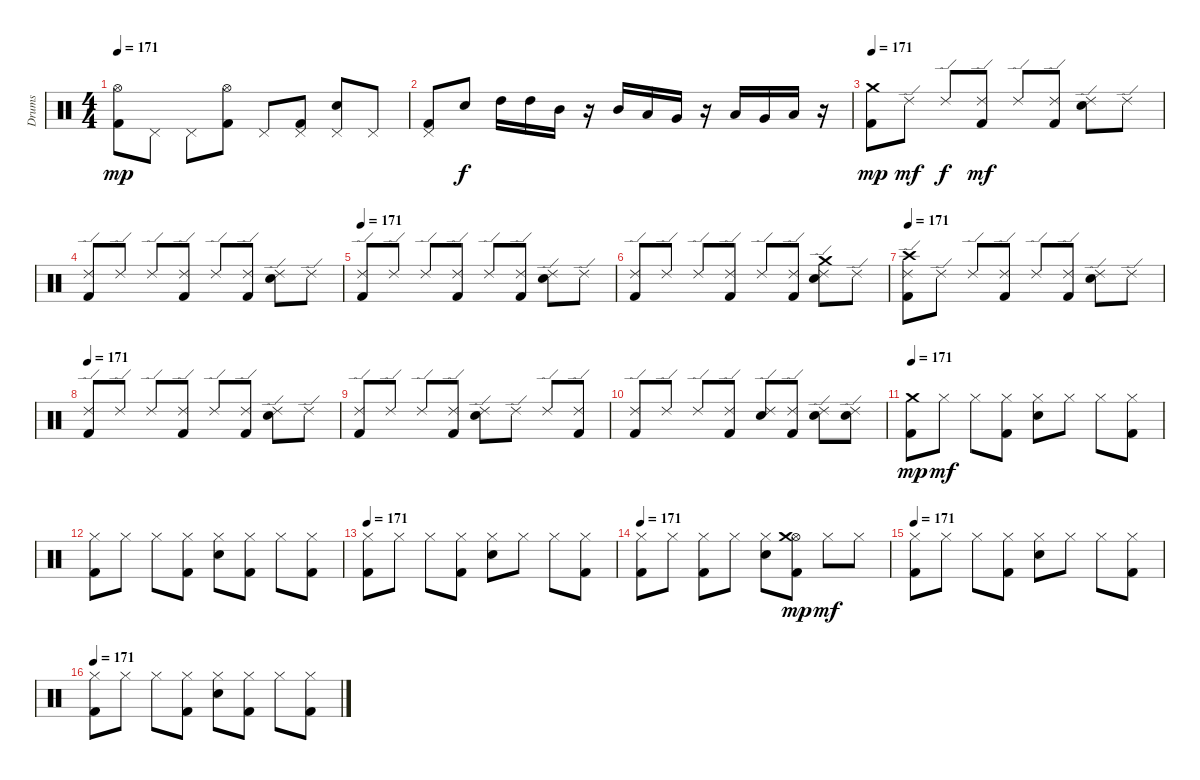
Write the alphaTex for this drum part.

\track ("Drums" "Drums") {instrument percussion}
\staff {score}
\articulation defaults
\ts (4 4)
\tempo 171
\clef neutral
\ks c
("Kick (hit) 2" "Hi-Hat (open)").8{dy mp} "Pedal Hi-Hat (hit)".8 "Pedal Hi-Hat (hit)".8 ("Kick (hit) 2" "Hi-Hat (open)").8 "Pedal Hi-Hat (hit)".8 ("Kick (hit) 2" "Pedal Hi-Hat (hit)").8 ("Electric Snare (hit)" "Pedal Hi-Hat (hit)").8 "Pedal Hi-Hat (hit)".8 |
("Kick (hit) 2" "Pedal Hi-Hat (hit)").8 "Electric Snare (hit)".8{dy f} "High Tom (hit)".16 "High Tom (hit)".16 "Mid Tom (hit)".16 r.16 "Mid Tom (hit)".16 "Low Tom (hit)".16 "Very Low Tom (hit)".16 r.16 "Low Tom (hit)".16 "Very Low Tom (hit)".16 "Low Floor Tom (hit)".16 r.16 |
\tempo 171
("Kick (hit) 2" "Crash medium (hit)").8{dy mp} "Ride (edge) 2".8{dy mf} "Ride (edge) 2".8{dy f} ("Kick (hit) 2" "Ride (edge) 2").8{dy mf} "Ride (edge) 2".8 ("Kick (hit) 2" "Ride (edge) 2").8 ("Electric Snare (hit)" "Ride (edge) 2").8 "Ride (edge) 2".8 |
("Kick (hit) 2" "Ride (edge) 2").8 "Ride (edge) 2".8 "Ride (edge) 2".8 ("Kick (hit) 2" "Ride (edge) 2").8 "Ride (edge) 2".8 ("Kick (hit) 2" "Ride (edge) 2").8 ("Electric Snare (hit)" "Ride (edge) 2").8 "Ride (edge) 2".8 |
\tempo 171
("Kick (hit) 2" "Ride (edge) 2").8 "Ride (edge) 2".8 "Ride (edge) 2".8 ("Kick (hit) 2" "Ride (edge) 2").8 "Ride (edge) 2".8 ("Kick (hit) 2" "Ride (edge) 2").8 ("Electric Snare (hit)" "Ride (edge) 2").8 "Ride (edge) 2".8 |
("Kick (hit) 2" "Ride (edge) 2").8 "Ride (edge) 2".8 "Ride (edge) 2".8 ("Kick (hit) 2" "Ride (edge) 2").8 "Ride (edge) 2".8 ("Kick (hit) 2" "Ride (edge) 2").8 ("Electric Snare (hit)" "Crash medium (hit)" "Ride (edge) 2").8 "Ride (edge) 2".8 |
\tempo 171
("Kick (hit) 2" "Crash high (hit)" "Ride (edge) 2").8 "Ride (edge) 2".8 "Ride (edge) 2".8 ("Kick (hit) 2" "Ride (edge) 2").8 "Ride (edge) 2".8 ("Kick (hit) 2" "Ride (edge) 2").8 ("Electric Snare (hit)" "Ride (edge) 2").8 "Ride (edge) 2".8 |
\tempo 171
("Kick (hit) 2" "Ride (edge) 2").8 "Ride (edge) 2".8 "Ride (edge) 2".8 ("Kick (hit) 2" "Ride (edge) 2").8 "Ride (edge) 2".8 ("Kick (hit) 2" "Ride (edge) 2").8 ("Electric Snare (hit)" "Ride (edge) 2").8 "Ride (edge) 2".8 |
("Kick (hit) 2" "Ride (edge) 2").8 "Ride (edge) 2".8 "Ride (edge) 2".8 ("Kick (hit) 2" "Ride (edge) 2").8 ("Electric Snare (hit)" "Ride (edge) 2").8 "Ride (edge) 2".8 "Ride (edge) 2".8 ("Kick (hit) 2" "Ride (edge) 2").8 |
("Kick (hit) 2" "Ride (edge) 2").8 "Ride (edge) 2".8 "Ride (edge) 2".8 ("Kick (hit) 2" "Ride (edge) 2").8 ("Electric Snare (hit)" "Ride (edge) 2").8 ("Kick (hit) 2" "Ride (edge) 2").8 ("Electric Snare (hit)" "Ride (edge) 2").8 ("Electric Snare (hit)" "Ride (edge) 2").8 |
\tempo 171
("Kick (hit) 2" "Crash medium (hit)").8{dy mp} "Hi-Hat (closed)".8{dy mf} "Hi-Hat (closed)".8 ("Kick (hit) 2" "Hi-Hat (closed)").8 ("Electric Snare (hit)" "Hi-Hat (closed)").8 "Hi-Hat (closed)".8 "Hi-Hat (closed)".8 ("Kick (hit) 2" "Hi-Hat (closed)").8 |
("Kick (hit) 2" "Hi-Hat (closed)").8 "Hi-Hat (closed)".8 "Hi-Hat (closed)".8 ("Kick (hit) 2" "Hi-Hat (closed)").8 ("Electric Snare (hit)" "Hi-Hat (closed)").8 ("Kick (hit) 2" "Hi-Hat (closed)").8 "Hi-Hat (closed)".8 ("Kick (hit) 2" "Hi-Hat (closed)").8 |
\tempo 171
("Kick (hit) 2" "Hi-Hat (closed)").8 "Hi-Hat (closed)".8 "Hi-Hat (closed)".8 ("Kick (hit) 2" "Hi-Hat (closed)").8 ("Electric Snare (hit)" "Hi-Hat (closed)").8 "Hi-Hat (closed)".8 "Hi-Hat (closed)".8 ("Kick (hit) 2" "Hi-Hat (closed)").8 |
\tempo 171
("Kick (hit) 2" "Hi-Hat (closed)").8 "Hi-Hat (closed)".8 ("Kick (hit) 2" "Hi-Hat (closed)").8 "Hi-Hat (closed)".8 ("Electric Snare (hit)" "Hi-Hat (closed)").8 ("Kick (hit) 2" "Hi-Hat (open)" "Crash medium (hit)").8{dy mp} "Hi-Hat (closed)".8{dy mf} "Hi-Hat (closed)".8 |
\tempo 171
("Kick (hit) 2" "Hi-Hat (closed)").8 "Hi-Hat (closed)".8 "Hi-Hat (closed)".8 ("Kick (hit) 2" "Hi-Hat (closed)").8 ("Electric Snare (hit)" "Hi-Hat (closed)").8 "Hi-Hat (closed)".8 "Hi-Hat (closed)".8 ("Kick (hit) 2" "Hi-Hat (closed)").8 |
\tempo 171
("Kick (hit) 2" "Hi-Hat (closed)").8 "Hi-Hat (closed)".8 "Hi-Hat (closed)".8 ("Kick (hit) 2" "Hi-Hat (closed)").8 ("Electric Snare (hit)" "Hi-Hat (closed)").8 ("Kick (hit) 2" "Hi-Hat (closed)").8 "Hi-Hat (closed)".8 ("Kick (hit) 2" "Hi-Hat (closed)").8
